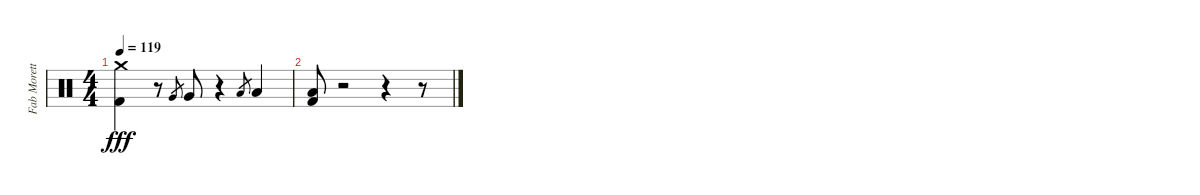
\track ("Fab Moretti" "Fab Morett") {instrument percussion}
\staff {score}
\articulation defaults
\ts (4 4)
\tempo 119
\clef neutral
\ks c
("Crash medium (hit)" "Kick (hit) 2").4{dy fff} r.8 "Very Low Tom (hit)".8{gr} "Very Low Tom (hit)".8 r.4 "Low Floor Tom (hit)".8{gr} "Low Floor Tom (hit)".4 |
("Low Floor Tom (hit)" "Kick (hit) 2").8 r.2 r.4 r.8
